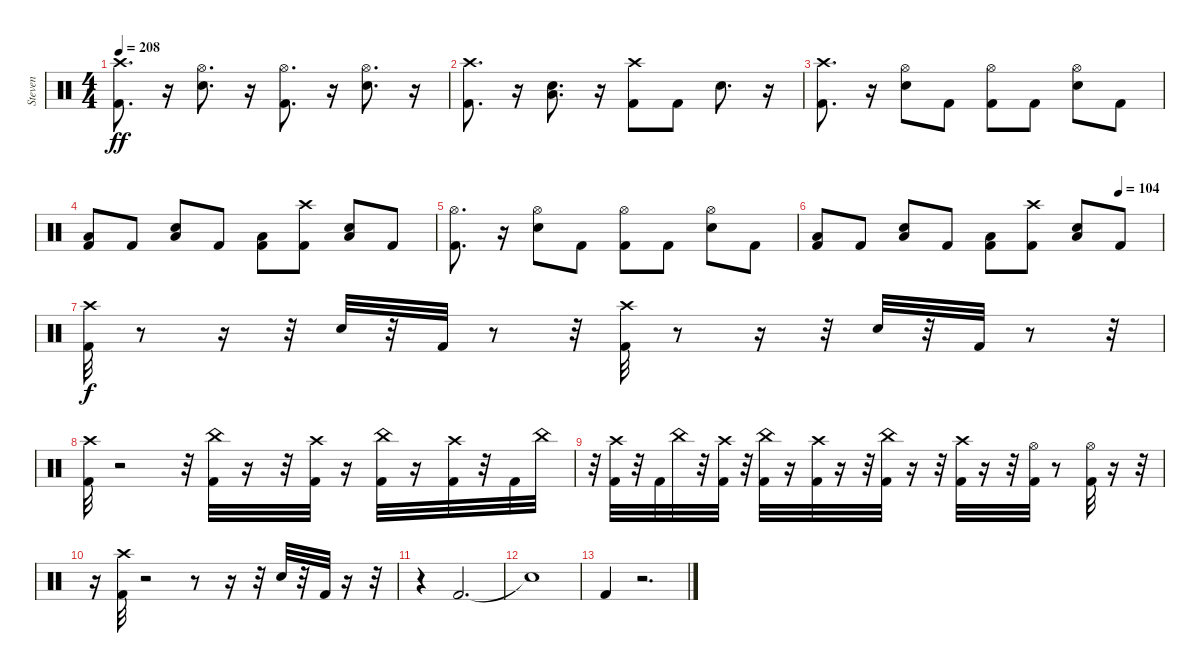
\track ("Steven" "Steven") {instrument percussion}
\staff {score}
\articulation defaults
\ts (4 4)
\tempo 208
\clef neutral
\ks c
("Kick (hit) 2" "Crash high (hit)").8{d dy ff} r.16 ("Snare (hit) 2" "Hi-Hat (open)").8{d} r.16 ("Kick (hit) 2" "Hi-Hat (open)").8{d} r.16 ("Snare (hit) 2" "Hi-Hat (open)").8{d} r.16 |
("Kick (hit) 2" "Crash high (hit)").8{d} r.16 ("Snare (hit) 2" "Low Tom (hit)").8{d} r.16 ("Kick (hit) 2" "Crash high (hit)").8 "Kick (hit) 2".8 "Snare (hit) 2".8{d} r.16 |
("Kick (hit) 2" "Crash high (hit)").8{d} r.16 ("Snare (hit) 2" "Hi-Hat (open)").8 "Kick (hit) 2".8 ("Kick (hit) 2" "Hi-Hat (open)").8 "Kick (hit) 2".8 ("Snare (hit) 2" "Hi-Hat (open)").8 "Kick (hit) 2".8 |
("Kick (hit) 2" "Low Tom (hit)").8 "Kick (hit) 2".8 ("Snare (hit) 2" "Low Tom (hit)").8 "Kick (hit) 2".8 ("Kick (hit) 2" "Low Tom (hit)").8 ("Kick (hit) 2" "Crash high (hit)").8 ("Snare (hit) 2" "Low Tom (hit)").8 "Kick (hit) 2".8 |
("Kick (hit) 2" "Hi-Hat (open)").8{d} r.16 ("Snare (hit) 2" "Hi-Hat (open)").8 "Kick (hit) 2".8 ("Kick (hit) 2" "Hi-Hat (open)").8 "Kick (hit) 2".8 ("Snare (hit) 2" "Hi-Hat (open)").8 "Kick (hit) 2".8 |
\tempo (104 0.875)
("Kick (hit) 2" "Low Tom (hit)").8 "Kick (hit) 2".8 ("Snare (hit) 2" "Low Tom (hit)").8 "Kick (hit) 2".8 ("Kick (hit) 2" "Low Tom (hit)").8 ("Kick (hit) 2" "Crash high (hit)").8 ("Snare (hit) 2" "Low Tom (hit)").8 "Kick (hit) 2".8 |
("Crash high (hit)" "Kick (hit) 2").32{dy f} r.8 r.16 r.32 "Snare (hit) 2".32 r.32 "Kick (hit) 2".32 r.8 r.32 ("Crash high (hit)" "Kick (hit) 2").32 r.8 r.16 r.32 "Snare (hit) 2".32 r.32 "Kick (hit) 2".32 r.8 r.32 |
("Kick (hit) 2" "Crash high (hit)").32 r.2 r.32 ("Kick (hit) 2" "China (hit)").32 r.16 r.32 ("Kick (hit) 2" "Crash high (hit)").32 r.16 ("China (hit)" "Kick (hit) 2").32 r.16 ("Kick (hit) 2" "Crash high (hit)").32 r.32 "Kick (hit) 2".32 "China (hit)".32 |
r.32 ("Kick (hit) 2" "Crash high (hit)").32 r.32 "Kick (hit) 2".32 "China (hit)".32 r.32 ("Kick (hit) 2" "Crash high (hit)").32 r.32 ("Kick (hit) 2" "China (hit)").32 r.16 ("Crash high (hit)" "Kick (hit) 2").32 r.16 r.32 ("Kick (hit) 2" "China (hit)").32 r.16 r.32 ("Crash high (hit)" "Kick (hit) 2").32 r.16 r.32 ("Kick (hit) 2" "Hi-Hat (open)").32 r.8 ("Hi-Hat (open)" "Kick (hit) 2").32 r.16 r.32 |
r.16 ("Crash high (hit)" "Kick (hit) 2").32 r.2 r.8 r.16 r.32 "Snare (hit) 2".32 r.32 "Kick (hit) 2".32 r.16 r.32 |
r.4 "Kick (hit) 2".2{d} |
"Snare (hit)"{t}.1 |
"Kick (hit) 2".4 r.2{d}
